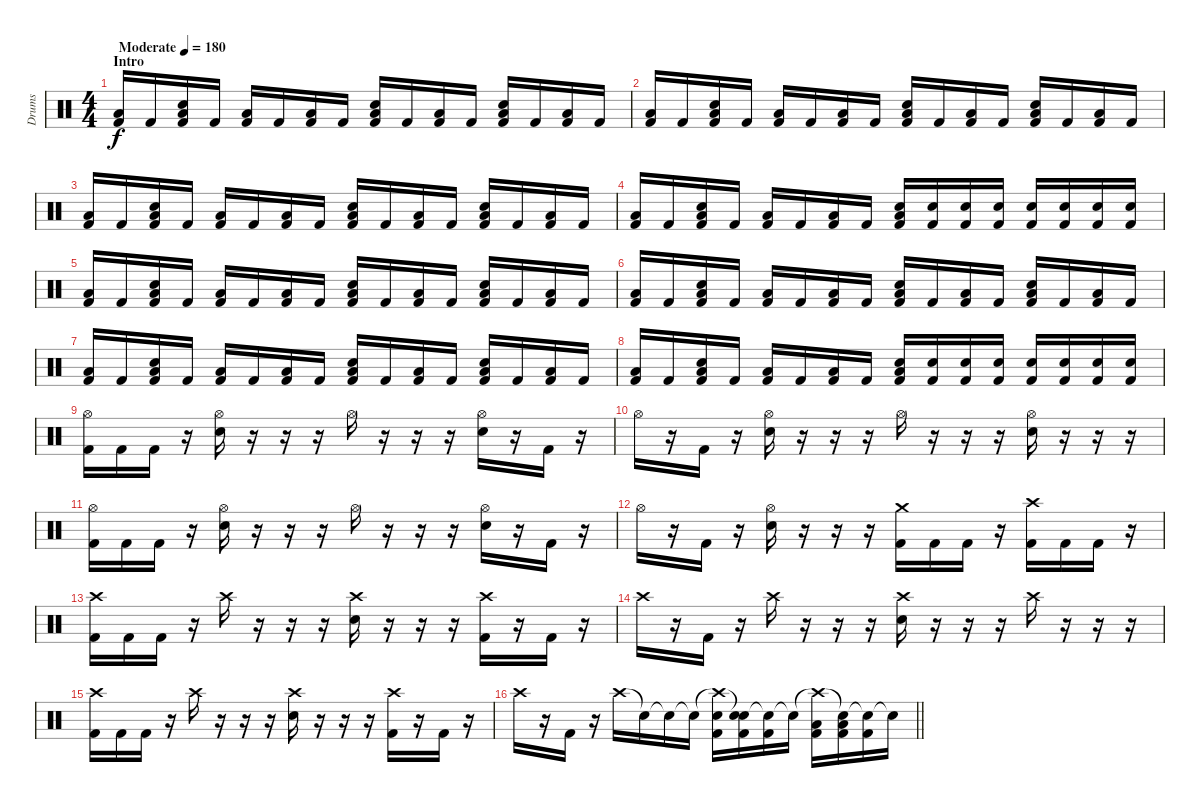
\track ("Drums" "Drums") {instrument percussion}
\staff {score}
\articulation defaults
\ts (4 4)
\section ("" "Intro")
\tempo (180 "Moderate")
\clef neutral
\ks c
("Low Floor Tom (hit)" "Kick (hit) 2").16{dy f} "Kick (hit) 2".16 ("Electric Snare (hit)" "Low Floor Tom (hit)" "Kick (hit) 2").16 "Kick (hit) 2".16 ("Low Floor Tom (hit)" "Kick (hit) 2").16 "Kick (hit) 2".16 ("Low Floor Tom (hit)" "Kick (hit) 2").16 "Kick (hit) 2".16 ("Electric Snare (hit)" "Low Floor Tom (hit)" "Kick (hit) 2").16 "Kick (hit) 2".16 ("Low Floor Tom (hit)" "Kick (hit) 2").16 "Kick (hit) 2".16 ("Electric Snare (hit)" "Low Floor Tom (hit)" "Kick (hit) 2").16 "Kick (hit) 2".16 ("Low Floor Tom (hit)" "Kick (hit) 2").16 "Kick (hit) 2".16 |
("Low Floor Tom (hit)" "Kick (hit) 2").16 "Kick (hit) 2".16 ("Electric Snare (hit)" "Low Floor Tom (hit)" "Kick (hit) 2").16 "Kick (hit) 2".16 ("Low Floor Tom (hit)" "Kick (hit) 2").16 "Kick (hit) 2".16 ("Low Floor Tom (hit)" "Kick (hit) 2").16 "Kick (hit) 2".16 ("Electric Snare (hit)" "Low Floor Tom (hit)" "Kick (hit) 2").16 "Kick (hit) 2".16 ("Low Floor Tom (hit)" "Kick (hit) 2").16 "Kick (hit) 2".16 ("Electric Snare (hit)" "Low Floor Tom (hit)" "Kick (hit) 2").16 "Kick (hit) 2".16 ("Low Floor Tom (hit)" "Kick (hit) 2").16 "Kick (hit) 2".16 |
("Low Floor Tom (hit)" "Kick (hit) 2").16 "Kick (hit) 2".16 ("Electric Snare (hit)" "Low Floor Tom (hit)" "Kick (hit) 2").16 "Kick (hit) 2".16 ("Low Floor Tom (hit)" "Kick (hit) 2").16 "Kick (hit) 2".16 ("Low Floor Tom (hit)" "Kick (hit) 2").16 "Kick (hit) 2".16 ("Electric Snare (hit)" "Low Floor Tom (hit)" "Kick (hit) 2").16 "Kick (hit) 2".16 ("Low Floor Tom (hit)" "Kick (hit) 2").16 "Kick (hit) 2".16 ("Electric Snare (hit)" "Low Floor Tom (hit)" "Kick (hit) 2").16 "Kick (hit) 2".16 ("Low Floor Tom (hit)" "Kick (hit) 2").16 "Kick (hit) 2".16 |
("Low Floor Tom (hit)" "Kick (hit) 2").16 "Kick (hit) 2".16 ("Electric Snare (hit)" "Low Floor Tom (hit)" "Kick (hit) 2").16 "Kick (hit) 2".16 ("Low Floor Tom (hit)" "Kick (hit) 2").16 "Kick (hit) 2".16 ("Low Floor Tom (hit)" "Kick (hit) 2").16 "Kick (hit) 2".16 ("Electric Snare (hit)" "Low Floor Tom (hit)" "Kick (hit) 2").16 ("Electric Snare (hit)" "Kick (hit) 2").16 ("Electric Snare (hit)" "Kick (hit) 2").16 ("Electric Snare (hit)" "Kick (hit) 2").16 ("Electric Snare (hit)" "Kick (hit) 2").16 ("Electric Snare (hit)" "Kick (hit) 2").16 ("Electric Snare (hit)" "Kick (hit) 2").16 ("Electric Snare (hit)" "Kick (hit) 2").16 |
("Low Floor Tom (hit)" "Kick (hit) 2").16 "Kick (hit) 2".16 ("Electric Snare (hit)" "Low Floor Tom (hit)" "Kick (hit) 2").16 "Kick (hit) 2".16 ("Low Floor Tom (hit)" "Kick (hit) 2").16 "Kick (hit) 2".16 ("Low Floor Tom (hit)" "Kick (hit) 2").16 "Kick (hit) 2".16 ("Electric Snare (hit)" "Low Floor Tom (hit)" "Kick (hit) 2").16 "Kick (hit) 2".16 ("Low Floor Tom (hit)" "Kick (hit) 2").16 "Kick (hit) 2".16 ("Electric Snare (hit)" "Low Floor Tom (hit)" "Kick (hit) 2").16 "Kick (hit) 2".16 ("Low Floor Tom (hit)" "Kick (hit) 2").16 "Kick (hit) 2".16 |
("Low Floor Tom (hit)" "Kick (hit) 2").16 "Kick (hit) 2".16 ("Electric Snare (hit)" "Low Floor Tom (hit)" "Kick (hit) 2").16 "Kick (hit) 2".16 ("Low Floor Tom (hit)" "Kick (hit) 2").16 "Kick (hit) 2".16 ("Low Floor Tom (hit)" "Kick (hit) 2").16 "Kick (hit) 2".16 ("Electric Snare (hit)" "Low Floor Tom (hit)" "Kick (hit) 2").16 "Kick (hit) 2".16 ("Low Floor Tom (hit)" "Kick (hit) 2").16 "Kick (hit) 2".16 ("Electric Snare (hit)" "Low Floor Tom (hit)" "Kick (hit) 2").16 "Kick (hit) 2".16 ("Low Floor Tom (hit)" "Kick (hit) 2").16 "Kick (hit) 2".16 |
("Low Floor Tom (hit)" "Kick (hit) 2").16 "Kick (hit) 2".16 ("Electric Snare (hit)" "Low Floor Tom (hit)" "Kick (hit) 2").16 "Kick (hit) 2".16 ("Low Floor Tom (hit)" "Kick (hit) 2").16 "Kick (hit) 2".16 ("Low Floor Tom (hit)" "Kick (hit) 2").16 "Kick (hit) 2".16 ("Electric Snare (hit)" "Low Floor Tom (hit)" "Kick (hit) 2").16 "Kick (hit) 2".16 ("Low Floor Tom (hit)" "Kick (hit) 2").16 "Kick (hit) 2".16 ("Electric Snare (hit)" "Low Floor Tom (hit)" "Kick (hit) 2").16 "Kick (hit) 2".16 ("Low Floor Tom (hit)" "Kick (hit) 2").16 "Kick (hit) 2".16 |
("Low Floor Tom (hit)" "Kick (hit) 2").16 "Kick (hit) 2".16 ("Electric Snare (hit)" "Low Floor Tom (hit)" "Kick (hit) 2").16 "Kick (hit) 2".16 ("Low Floor Tom (hit)" "Kick (hit) 2").16 "Kick (hit) 2".16 ("Low Floor Tom (hit)" "Kick (hit) 2").16 "Kick (hit) 2".16 ("Electric Snare (hit)" "Low Floor Tom (hit)" "Kick (hit) 2").16 ("Electric Snare (hit)" "Kick (hit) 2").16 ("Electric Snare (hit)" "Kick (hit) 2").16 ("Electric Snare (hit)" "Kick (hit) 2").16 ("Electric Snare (hit)" "Kick (hit) 2").16 ("Electric Snare (hit)" "Kick (hit) 2").16 ("Electric Snare (hit)" "Kick (hit) 2").16 ("Electric Snare (hit)" "Kick (hit) 2").16 |
("Hi-Hat (open)" "Kick (hit) 2").16 "Kick (hit) 2".16 "Kick (hit) 2".16 r.16 ("Hi-Hat (open)" "Electric Snare (hit)").16 r.16 r.16 r.16 "Hi-Hat (open)".16 r.16 r.16 r.16 ("Hi-Hat (open)" "Electric Snare (hit)").16 r.16 "Kick (hit) 2".16 r.16 |
"Hi-Hat (open)".16 r.16 "Kick (hit) 2".16 r.16 ("Hi-Hat (open)" "Electric Snare (hit)").16 r.16 r.16 r.16 "Hi-Hat (open)".16 r.16 r.16 r.16 ("Hi-Hat (open)" "Electric Snare (hit)").16 r.16 r.16 r.16 |
("Hi-Hat (open)" "Kick (hit) 2").16 "Kick (hit) 2".16 "Kick (hit) 2".16 r.16 ("Hi-Hat (open)" "Electric Snare (hit)").16 r.16 r.16 r.16 "Hi-Hat (open)".16 r.16 r.16 r.16 ("Hi-Hat (open)" "Electric Snare (hit)").16 r.16 "Kick (hit) 2".16 r.16 |
"Hi-Hat (open)".16 r.16 "Kick (hit) 2".16 r.16 ("Hi-Hat (open)" "Electric Snare (hit)").16 r.16 r.16 r.16 ("Crash medium (hit)" "Kick (hit) 2").16 "Kick (hit) 2".16 "Kick (hit) 2".16 r.16 ("Crash high (hit)" "Kick (hit) 2").16 "Kick (hit) 2".16 "Kick (hit) 2".16 r.16 |
("Crash high (hit)" "Kick (hit) 2").16 "Kick (hit) 2".16 "Kick (hit) 2".16 r.16 "Crash high (hit)".16 r.16 r.16 r.16 ("Crash high (hit)" "Electric Snare (hit)").16 r.16 r.16 r.16 ("Crash high (hit)" "Kick (hit) 2").16 r.16 "Kick (hit) 2".16 r.16 |
"Crash high (hit)".16 r.16 "Kick (hit) 2".16 r.16 "Crash high (hit)".16 r.16 r.16 r.16 ("Crash high (hit)" "Electric Snare (hit)").16 r.16 r.16 r.16 "Crash high (hit)".16 r.16 r.16 r.16 |
("Crash high (hit)" "Kick (hit) 2").16 "Kick (hit) 2".16 "Kick (hit) 2".16 r.16 "Crash high (hit)".16 r.16 r.16 r.16 ("Crash high (hit)" "Electric Snare (hit)").16 r.16 r.16 r.16 ("Crash high (hit)" "Kick (hit) 2").16 r.16 "Kick (hit) 2".16 r.16 |
\barLineRight lightlight "Crash high (hit)".16
r.16 "Kick (hit) 2".16 r.16 "Crash high (hit)".16 "Snare (hit)"{t}.16 "Snare (hit)"{t}.16 "Snare (hit)"{t}.16 ("Crash high (hit)"{t} "Electric Snare (hit)" "Kick (hit) 2").16 ("Snare (hit)"{t} "Electric Snare (hit)" "Kick (hit) 2").16 ("Snare (hit)"{t} "Kick (hit) 2").16 "Snare (hit)"{t}.16 ("Crash high (hit)"{t} "Low Floor Tom (hit)" "Kick (hit) 2").16 ("Snare (hit)"{t} "Low Floor Tom (hit)" "Kick (hit) 2").16 ("Snare (hit)"{t} "Kick (hit) 2").16 "Snare (hit)"{t}.16
